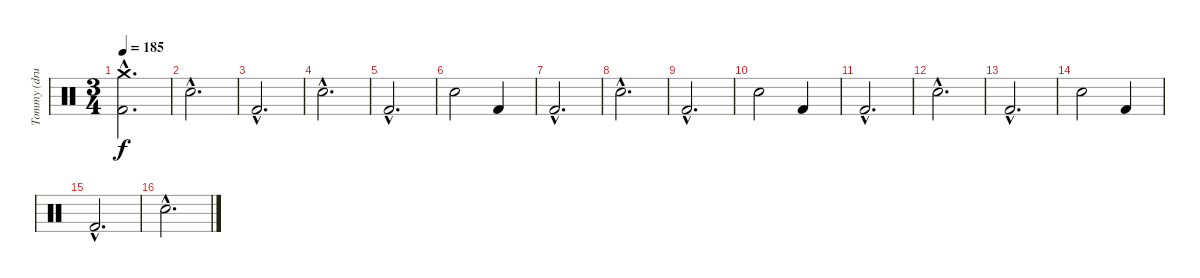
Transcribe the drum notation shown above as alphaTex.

\track ("Tommy (drums)" "Tommy (dru") {instrument percussion}
\staff {score}
\articulation defaults
\ts (3 4)
\tempo 185
\clef neutral
\ks c
("Crash medium (hit)"{hac} "Kick (hit) 2"{hac}).2{d dy f} |
"Electric Snare (hit)"{hac}.2{d} |
"Kick (hit) 2"{hac}.2{d} |
"Electric Snare (hit)"{hac}.2{d} |
"Kick (hit) 2"{hac}.2{d} |
"Electric Snare (hit)".2 "Kick (hit) 2".4 |
"Kick (hit) 2"{hac}.2{d} |
"Electric Snare (hit)"{hac}.2{d} |
"Kick (hit) 2"{hac}.2{d} |
"Electric Snare (hit)".2 "Kick (hit) 2".4 |
"Kick (hit) 2"{hac}.2{d} |
"Electric Snare (hit)"{hac}.2{d} |
"Kick (hit) 2"{hac}.2{d} |
"Electric Snare (hit)".2 "Kick (hit) 2".4 |
"Kick (hit) 2"{hac}.2{d} |
"Electric Snare (hit)"{hac}.2{d}
